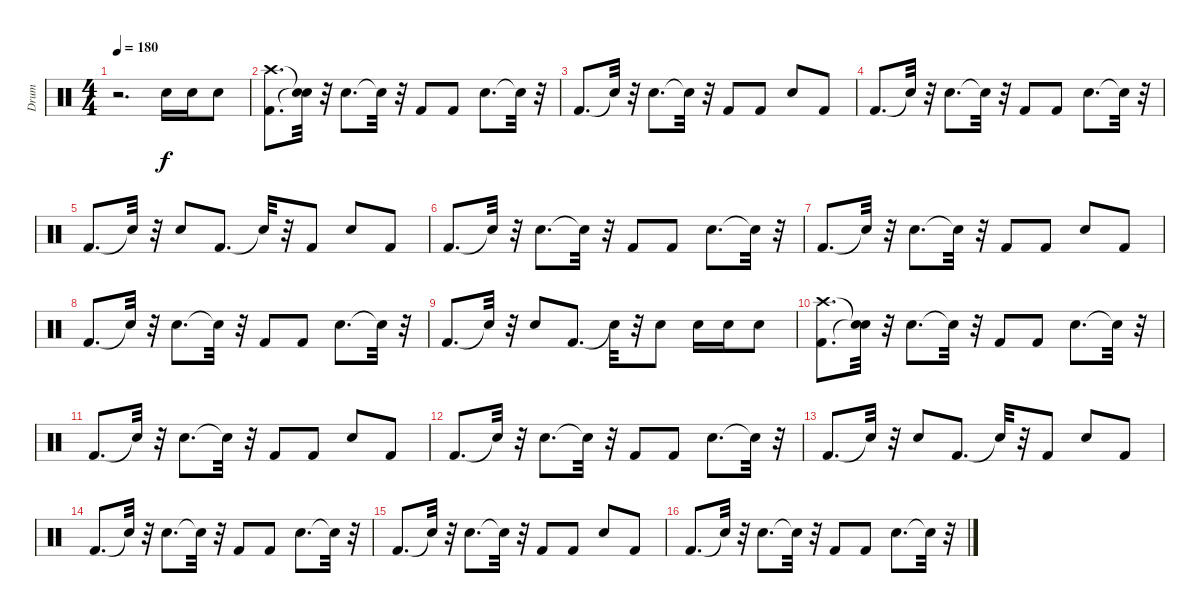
\track ("Drum" "Drum") {instrument percussion}
\staff {score}
\articulation defaults
\ts (4 4)
\tempo 180
\clef neutral
\ks c
r.2{d dy f} "Snare (hit) 2".16 "Snare (hit) 2".16 "Snare (hit) 2".8 |
("Crash high (hit)" "Kick (hit) 2").8{d} ("Snare (hit)"{t} "Snare (hit)"{t}).32 r.32 "Snare (hit) 2".8{d} "Snare (hit)"{t}.32 r.32 "Kick (hit) 2".8 "Kick (hit) 2".8 "Snare (hit) 2".8{d} "Snare (hit)"{t}.32 r.32 |
"Kick (hit) 2".8{d} "Snare (hit)"{t}.32 r.32 "Snare (hit) 2".8{d} "Snare (hit)"{t}.32 r.32 "Kick (hit) 2".8 "Kick (hit) 2".8 "Snare (hit) 2".8 "Kick (hit) 2".8 |
"Kick (hit) 2".8{d} "Snare (hit)"{t}.32 r.32 "Snare (hit) 2".8{d} "Snare (hit)"{t}.32 r.32 "Kick (hit) 2".8 "Kick (hit) 2".8 "Snare (hit) 2".8{d} "Snare (hit)"{t}.32 r.32 |
"Kick (hit) 2".8{d} "Snare (hit)"{t}.32 r.32 "Snare (hit) 2".8 "Kick (hit) 2".8{d} "Snare (hit)"{t}.32 r.32 "Kick (hit) 2".8 "Snare (hit) 2".8 "Kick (hit) 2".8 |
"Kick (hit) 2".8{d} "Snare (hit)"{t}.32 r.32 "Snare (hit) 2".8{d} "Snare (hit)"{t}.32 r.32 "Kick (hit) 2".8 "Kick (hit) 2".8 "Snare (hit) 2".8{d} "Snare (hit)"{t}.32 r.32 |
"Kick (hit) 2".8{d} "Snare (hit)"{t}.32 r.32 "Snare (hit) 2".8{d} "Snare (hit)"{t}.32 r.32 "Kick (hit) 2".8 "Kick (hit) 2".8 "Snare (hit) 2".8 "Kick (hit) 2".8 |
"Kick (hit) 2".8{d} "Snare (hit)"{t}.32 r.32 "Snare (hit) 2".8{d} "Snare (hit)"{t}.32 r.32 "Kick (hit) 2".8 "Kick (hit) 2".8 "Snare (hit) 2".8{d} "Snare (hit)"{t}.32 r.32 |
"Kick (hit) 2".8{d} "Snare (hit)"{t}.32 r.32 "Snare (hit) 2".8 "Kick (hit) 2".8{d} "Snare (hit)"{t}.32 r.32 "Snare (hit) 2".8 "Snare (hit) 2".16 "Snare (hit) 2".16 "Snare (hit) 2".8 |
("Crash high (hit)" "Kick (hit) 2").8{d} ("Snare (hit)"{t} "Snare (hit)"{t}).32 r.32 "Snare (hit) 2".8{d} "Snare (hit)"{t}.32 r.32 "Kick (hit) 2".8 "Kick (hit) 2".8 "Snare (hit) 2".8{d} "Snare (hit)"{t}.32 r.32 |
"Kick (hit) 2".8{d} "Snare (hit)"{t}.32 r.32 "Snare (hit) 2".8{d} "Snare (hit)"{t}.32 r.32 "Kick (hit) 2".8 "Kick (hit) 2".8 "Snare (hit) 2".8 "Kick (hit) 2".8 |
"Kick (hit) 2".8{d} "Snare (hit)"{t}.32 r.32 "Snare (hit) 2".8{d} "Snare (hit)"{t}.32 r.32 "Kick (hit) 2".8 "Kick (hit) 2".8 "Snare (hit) 2".8{d} "Snare (hit)"{t}.32 r.32 |
"Kick (hit) 2".8{d} "Snare (hit)"{t}.32 r.32 "Snare (hit) 2".8 "Kick (hit) 2".8{d} "Snare (hit)"{t}.32 r.32 "Kick (hit) 2".8 "Snare (hit) 2".8 "Kick (hit) 2".8 |
"Kick (hit) 2".8{d} "Snare (hit)"{t}.32 r.32 "Snare (hit) 2".8{d} "Snare (hit)"{t}.32 r.32 "Kick (hit) 2".8 "Kick (hit) 2".8 "Snare (hit) 2".8{d} "Snare (hit)"{t}.32 r.32 |
"Kick (hit) 2".8{d} "Snare (hit)"{t}.32 r.32 "Snare (hit) 2".8{d} "Snare (hit)"{t}.32 r.32 "Kick (hit) 2".8 "Kick (hit) 2".8 "Snare (hit) 2".8 "Kick (hit) 2".8 |
"Kick (hit) 2".8{d} "Snare (hit)"{t}.32 r.32 "Snare (hit) 2".8{d} "Snare (hit)"{t}.32 r.32 "Kick (hit) 2".8 "Kick (hit) 2".8 "Snare (hit) 2".8{d} "Snare (hit)"{t}.32 r.32
